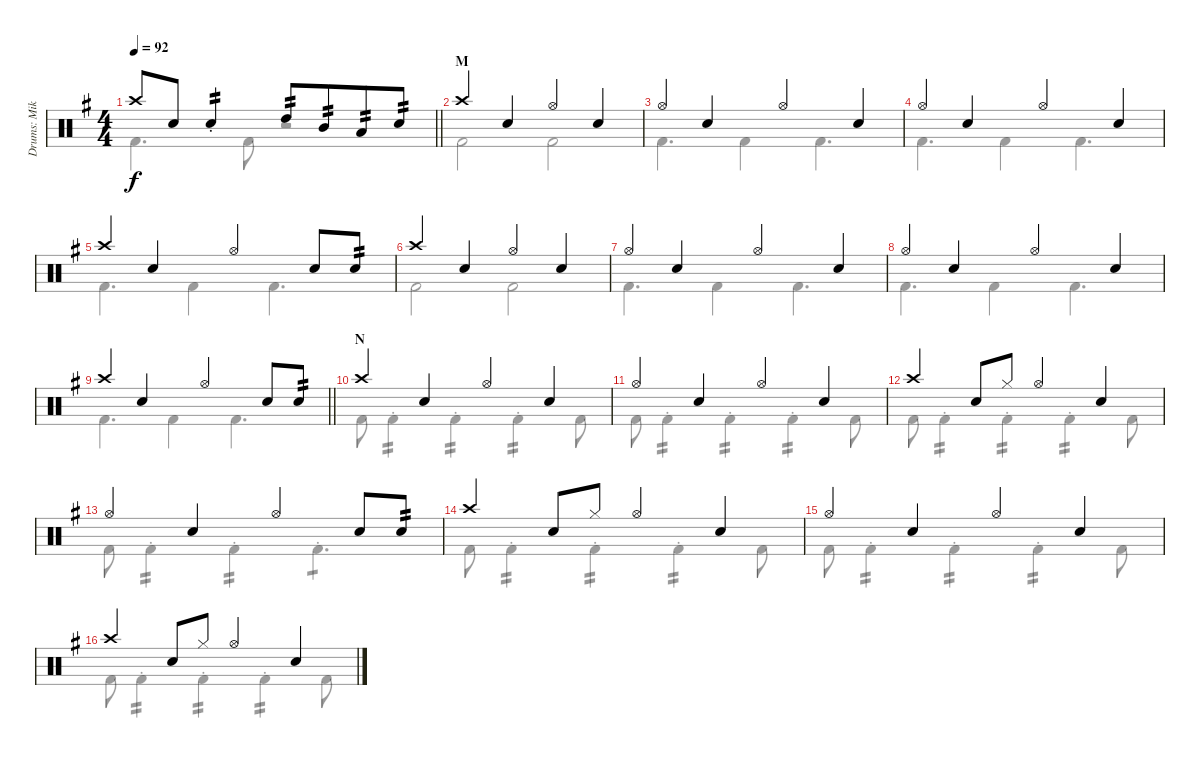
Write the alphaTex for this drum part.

\track ("Drums: Mike" "Drums: Mik") {instrument percussion}
\staff {score}
\articulation defaults
\voice
\ts (4 4)
\tempo 92
\clef neutral
\barLineRight lightlight
\ks g "Crash high (hit)".8{dy f} "Snare (hit) 2".8 "Electric Snare (hit)"{st}.4{tp 2} "High Tom (hit)".8{tp 2} "Mid Tom (hit)".8{tp 2 beam merge} "Low Tom (hit)".8{tp 2} "Snare (hit) 2".8{tp 2}
|
\section ("" "M")
"Crash high (hit)".4 "Snare (hit) 2".4 "Hi-Hat (open)".4{beam merge} "Snare (hit) 2".4 |
"Hi-Hat (open)".4 "Snare (hit) 2".4 "Hi-Hat (open)".4{beam merge} "Snare (hit) 2".4 |
"Hi-Hat (open)".4 "Snare (hit) 2".4 "Hi-Hat (open)".4{beam merge} "Snare (hit) 2".4 |
"Crash high (hit)".4 "Snare (hit) 2".4 "Hi-Hat (open)".4{beam merge} "Snare (hit) 2".8 "Electric Snare (hit)".8{tp 2} |
"Crash high (hit)".4 "Snare (hit) 2".4 "Hi-Hat (open)".4{beam merge} "Snare (hit) 2".4 |
"Hi-Hat (open)".4 "Snare (hit) 2".4 "Hi-Hat (open)".4{beam merge} "Snare (hit) 2".4 |
"Hi-Hat (open)".4 "Snare (hit) 2".4 "Hi-Hat (open)".4{beam merge} "Snare (hit) 2".4 |
\barLineRight lightlight "Crash high (hit)".4 "Snare (hit) 2".4 "Hi-Hat (open)".4{beam merge} "Snare (hit) 2".8 "Electric Snare (hit)".8{tp 2}
|
\section ("" "N")
"Crash high (hit)".4 "Snare (hit) 2".4 "Hi-Hat (open)".4{beam merge} "Snare (hit) 2".4 |
"Hi-Hat (open)".4 "Snare (hit) 2".4 "Hi-Hat (open)".4{beam merge} "Snare (hit) 2".4 |
"Crash high (hit)".4 "Snare (hit) 2".8 "Hi-Hat (closed)".8 "Hi-Hat (open)".4{beam merge} "Snare (hit) 2".4 |
"Hi-Hat (open)".4 "Snare (hit) 2".4 "Hi-Hat (open)".4{beam merge} "Snare (hit) 2".8 "Electric Snare (hit)".8{tp 2} |
"Crash high (hit)".4 "Snare (hit) 2".8 "Hi-Hat (closed)".8 "Hi-Hat (open)".4{beam merge} "Snare (hit) 2".4 |
"Hi-Hat (open)".4 "Snare (hit) 2".4 "Hi-Hat (open)".4{beam merge} "Snare (hit) 2".4 |
"Crash high (hit)".4 "Snare (hit) 2".8 "Hi-Hat (closed)".8 "Hi-Hat (open)".4{beam merge} "Snare (hit) 2".4
\voice
\clef neutral
\ottava regular
\simile none
\barLineRight lightlight
\ks g "Kick (hit) 2".4{d dy f} "Kick (hit) 2".8
r.2 |
"Kick (hit) 2".2 "Kick (hit) 2".2 |
"Kick (hit) 2".4{d} "Kick (hit) 2".4 "Kick (hit) 2".4{d} |
"Kick (hit) 2".4{d} "Kick (hit) 2".4 "Kick (hit) 2".4{d} |
"Kick (hit) 2".4{d} "Kick (hit) 2".4 "Kick (hit) 2".4{d} |
"Kick (hit) 2".2 "Kick (hit) 2".2 |
"Kick (hit) 2".4{d} "Kick (hit) 2".4 "Kick (hit) 2".4{d} |
"Kick (hit) 2".4{d} "Kick (hit) 2".4 "Kick (hit) 2".4{d} |
\barLineRight lightlight "Kick (hit) 2".4{d} "Kick (hit) 2".4 "Kick (hit) 2".4{d}
|
"Kick (hit) 2".8 "Kick (hit) 2"{st}.4{tp 2} "Kick (hit) 2"{st}.4{tp 2} "Kick (hit) 2"{st}.4{tp 2} "Kick (hit) 2".8 |
"Kick (hit) 2".8 "Kick (hit) 2"{st}.4{tp 2} "Kick (hit) 2"{st}.4{tp 2} "Kick (hit) 2"{st}.4{tp 2} "Kick (hit) 2".8 |
"Kick (hit) 2".8 "Kick (hit) 2"{st}.4{tp 2} "Kick (hit) 2"{st}.4{tp 2} "Kick (hit) 2"{st}.4{tp 2} "Kick (hit) 2".8 |
"Kick (hit) 2".8 "Kick (hit) 2"{st}.4{tp 2} "Kick (hit) 2"{st}.4{tp 2} "Kick (hit) 2"{st}.4{d tp 1} |
"Kick (hit) 2".8 "Kick (hit) 2"{st}.4{tp 2} "Kick (hit) 2"{st}.4{tp 2} "Kick (hit) 2"{st}.4{tp 2} "Kick (hit) 2".8 |
"Kick (hit) 2".8 "Kick (hit) 2"{st}.4{tp 2} "Kick (hit) 2"{st}.4{tp 2} "Kick (hit) 2"{st}.4{tp 2} "Kick (hit) 2".8 |
"Kick (hit) 2".8 "Kick (hit) 2"{st}.4{tp 2} "Kick (hit) 2"{st}.4{tp 2} "Kick (hit) 2"{st}.4{tp 2} "Kick (hit) 2".8
